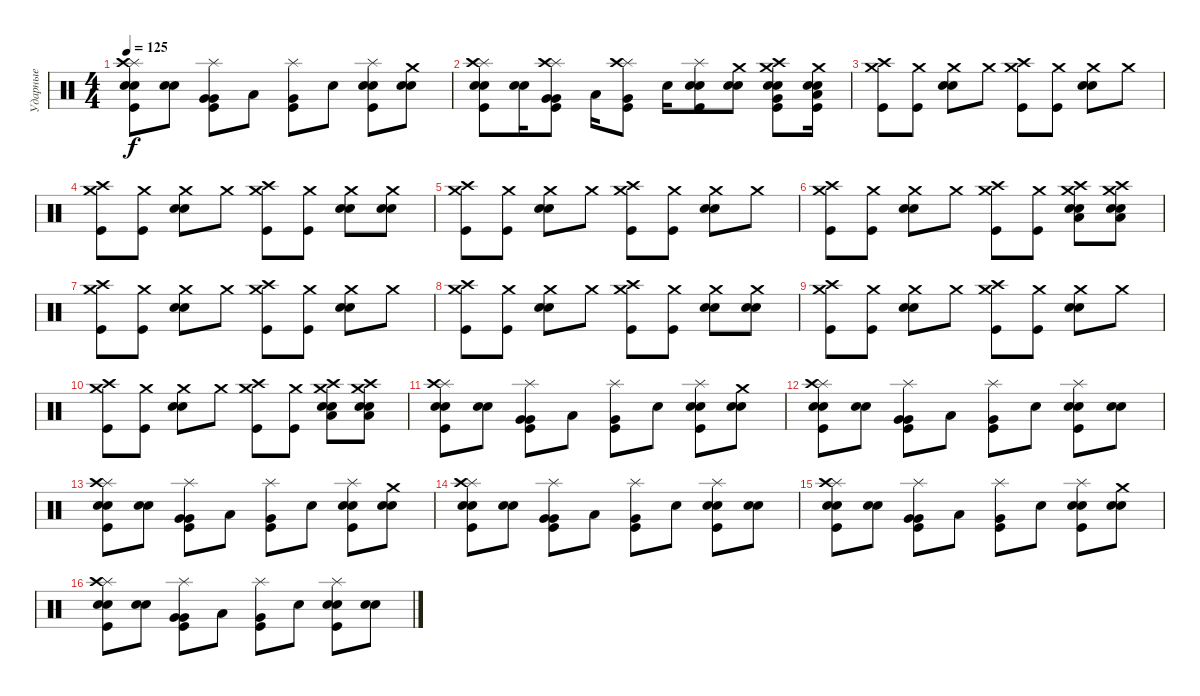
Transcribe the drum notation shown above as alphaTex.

\track ("Ударные" "Ударные") {instrument percussion}
\staff {score}
\articulation defaults
\ts (4 4)
\tempo 125
\clef neutral
\ks c
("Splash (hit)" "Crash high (hit)" "Snare (hit) 2" "Snare (hit) 2" "Kick (hit)").8{dy f} ("Electric Snare (hit)" "Electric Snare (hit)").8 ("Splash (hit)" "Very Low Tom (hit)" "Very Low Tom (hit)" "Kick (hit)").8 "Low Floor Tom (hit)".8 ("Splash (hit)" "Very Low Tom (hit)" "Kick (hit)").8 "Snare (hit) 2".8 ("Splash (hit)" "Electric Snare (hit)" "Electric Snare (hit)" "Kick (hit)").8 ("Crash medium (hit)" "Snare (hit) 2" "Snare (hit) 2").8 |
("Splash (hit)" "Crash high (hit)" "Snare (hit) 2" "Snare (hit) 2" "Kick (hit)").8 ("Electric Snare (hit)" "Electric Snare (hit)").16 ("Splash (hit)" "Crash high (hit)" "Very Low Tom (hit)" "Very Low Tom (hit)" "Kick (hit)").8 "Low Floor Tom (hit)".16 ("Splash (hit)" "Crash high (hit)" "Very Low Tom (hit)" "Kick (hit)").8 "Snare (hit) 2".16 ("Splash (hit)" "Electric Snare (hit)" "Electric Snare (hit)" "Kick (hit)").8 ("Crash medium (hit)" "Snare (hit) 2" "Snare (hit) 2").8 ("Crash medium (hit)" "Crash high (hit)" "Snare (hit) 2" "Electric Snare (hit)" "Very Low Tom (hit)" "Kick (hit)").8 ("Crash medium (hit)" "Electric Snare (hit)" "Electric Snare (hit)" "Low Floor Tom (hit)" "Kick (hit)").16 |
("Crash medium (hit)" "Crash high (hit)" "Kick (hit)").8 ("Crash medium (hit)" "Kick (hit)").8 ("Crash medium (hit)" "Snare (hit) 2" "Snare (hit) 2").8 "Crash medium (hit)".8 ("Crash medium (hit)" "Crash high (hit)" "Kick (hit)").8 ("Crash medium (hit)" "Kick (hit)").8 ("Crash medium (hit)" "Snare (hit) 2" "Snare (hit) 2").8 "Crash medium (hit)".8 |
("Crash medium (hit)" "Crash high (hit)" "Kick (hit)").8 ("Crash medium (hit)" "Kick (hit)").8 ("Crash medium (hit)" "Snare (hit) 2" "Snare (hit) 2").8 "Crash medium (hit)".8 ("Crash medium (hit)" "Crash high (hit)" "Kick (hit)").8 ("Crash medium (hit)" "Kick (hit)").8 ("Crash medium (hit)" "Snare (hit) 2" "Snare (hit) 2").8 ("Crash medium (hit)" "Snare (hit) 2" "Snare (hit) 2").8 |
("Crash medium (hit)" "Crash high (hit)" "Kick (hit)").8 ("Crash medium (hit)" "Kick (hit)").8 ("Crash medium (hit)" "Snare (hit) 2" "Snare (hit) 2").8 "Crash medium (hit)".8 ("Crash medium (hit)" "Crash high (hit)" "Kick (hit)").8 ("Crash medium (hit)" "Kick (hit)").8 ("Crash medium (hit)" "Snare (hit) 2" "Snare (hit) 2").8 "Crash medium (hit)".8 |
("Crash medium (hit)" "Crash high (hit)" "Kick (hit)").8 ("Crash medium (hit)" "Kick (hit)").8 ("Crash medium (hit)" "Snare (hit) 2" "Snare (hit) 2").8 "Crash medium (hit)".8 ("Crash medium (hit)" "Crash high (hit)" "Kick (hit)").8 ("Crash medium (hit)" "Kick (hit)").8 ("Crash medium (hit)" "Crash high (hit)" "Low Floor Tom (hit)" "Snare (hit) 2" "Snare (hit) 2").8 ("Crash medium (hit)" "Crash high (hit)" "Low Floor Tom (hit)" "Snare (hit) 2" "Snare (hit) 2").8 |
("Crash medium (hit)" "Crash high (hit)" "Kick (hit)").8 ("Crash medium (hit)" "Kick (hit)").8 ("Crash medium (hit)" "Snare (hit) 2" "Snare (hit) 2").8 "Crash medium (hit)".8 ("Crash medium (hit)" "Crash high (hit)" "Kick (hit)").8 ("Crash medium (hit)" "Kick (hit)").8 ("Crash medium (hit)" "Snare (hit) 2" "Snare (hit) 2").8 "Crash medium (hit)".8 |
("Crash medium (hit)" "Crash high (hit)" "Kick (hit)").8 ("Crash medium (hit)" "Kick (hit)").8 ("Crash medium (hit)" "Snare (hit) 2" "Snare (hit) 2").8 "Crash medium (hit)".8 ("Crash medium (hit)" "Crash high (hit)" "Kick (hit)").8 ("Crash medium (hit)" "Kick (hit)").8 ("Crash medium (hit)" "Snare (hit) 2" "Snare (hit) 2").8 ("Crash medium (hit)" "Snare (hit) 2" "Snare (hit) 2").8 |
("Crash medium (hit)" "Crash high (hit)" "Kick (hit)").8 ("Crash medium (hit)" "Kick (hit)").8 ("Crash medium (hit)" "Snare (hit) 2" "Snare (hit) 2").8 "Crash medium (hit)".8 ("Crash medium (hit)" "Crash high (hit)" "Kick (hit)").8 ("Crash medium (hit)" "Kick (hit)").8 ("Crash medium (hit)" "Snare (hit) 2" "Snare (hit) 2").8 "Crash medium (hit)".8 |
("Crash medium (hit)" "Crash high (hit)" "Kick (hit)").8 ("Crash medium (hit)" "Kick (hit)").8 ("Crash medium (hit)" "Snare (hit) 2" "Snare (hit) 2").8 "Crash medium (hit)".8 ("Crash medium (hit)" "Crash high (hit)" "Kick (hit)").8 ("Crash medium (hit)" "Kick (hit)").8 ("Crash medium (hit)" "Crash high (hit)" "Low Floor Tom (hit)" "Snare (hit) 2" "Snare (hit) 2").8 ("Crash medium (hit)" "Crash high (hit)" "Low Floor Tom (hit)" "Snare (hit) 2" "Snare (hit) 2").8 |
("Splash (hit)" "Crash high (hit)" "Snare (hit) 2" "Snare (hit) 2" "Kick (hit)").8 ("Electric Snare (hit)" "Electric Snare (hit)").8 ("Splash (hit)" "Very Low Tom (hit)" "Very Low Tom (hit)" "Kick (hit)").8 "Low Floor Tom (hit)".8 ("Splash (hit)" "Very Low Tom (hit)" "Kick (hit)").8 "Snare (hit) 2".8 ("Splash (hit)" "Electric Snare (hit)" "Electric Snare (hit)" "Kick (hit)").8 ("Crash medium (hit)" "Snare (hit) 2" "Snare (hit) 2").8 |
("Splash (hit)" "Crash high (hit)" "Snare (hit) 2" "Snare (hit) 2" "Kick (hit)").8 ("Electric Snare (hit)" "Electric Snare (hit)").8 ("Splash (hit)" "Very Low Tom (hit)" "Very Low Tom (hit)" "Kick (hit)").8 "Low Floor Tom (hit)".8 ("Splash (hit)" "Very Low Tom (hit)" "Kick (hit)").8 "Snare (hit) 2".8 ("Splash (hit)" "Electric Snare (hit)" "Electric Snare (hit)" "Kick (hit)").8 ("Snare (hit) 2" "Snare (hit) 2").8 |
("Splash (hit)" "Crash high (hit)" "Snare (hit) 2" "Snare (hit) 2" "Kick (hit)").8 ("Electric Snare (hit)" "Electric Snare (hit)").8 ("Splash (hit)" "Very Low Tom (hit)" "Very Low Tom (hit)" "Kick (hit)").8 "Low Floor Tom (hit)".8 ("Splash (hit)" "Very Low Tom (hit)" "Kick (hit)").8 "Snare (hit) 2".8 ("Splash (hit)" "Electric Snare (hit)" "Electric Snare (hit)" "Kick (hit)").8 ("Crash medium (hit)" "Snare (hit) 2" "Snare (hit) 2").8 |
("Splash (hit)" "Crash high (hit)" "Snare (hit) 2" "Snare (hit) 2" "Kick (hit)").8 ("Electric Snare (hit)" "Electric Snare (hit)").8 ("Splash (hit)" "Very Low Tom (hit)" "Very Low Tom (hit)" "Kick (hit)").8 "Low Floor Tom (hit)".8 ("Splash (hit)" "Very Low Tom (hit)" "Kick (hit)").8 "Snare (hit) 2".8 ("Splash (hit)" "Electric Snare (hit)" "Electric Snare (hit)" "Kick (hit)").8 ("Snare (hit) 2" "Snare (hit) 2").8 |
("Splash (hit)" "Crash high (hit)" "Snare (hit) 2" "Snare (hit) 2" "Kick (hit)").8 ("Electric Snare (hit)" "Electric Snare (hit)").8 ("Splash (hit)" "Very Low Tom (hit)" "Very Low Tom (hit)" "Kick (hit)").8 "Low Floor Tom (hit)".8 ("Splash (hit)" "Very Low Tom (hit)" "Kick (hit)").8 "Snare (hit) 2".8 ("Splash (hit)" "Electric Snare (hit)" "Electric Snare (hit)" "Kick (hit)").8 ("Crash medium (hit)" "Snare (hit) 2" "Snare (hit) 2").8 |
("Splash (hit)" "Crash high (hit)" "Snare (hit) 2" "Snare (hit) 2" "Kick (hit)").8 ("Electric Snare (hit)" "Electric Snare (hit)").8 ("Splash (hit)" "Very Low Tom (hit)" "Very Low Tom (hit)" "Kick (hit)").8 "Low Floor Tom (hit)".8 ("Splash (hit)" "Very Low Tom (hit)" "Kick (hit)").8 "Snare (hit) 2".8 ("Splash (hit)" "Electric Snare (hit)" "Electric Snare (hit)" "Kick (hit)").8 ("Snare (hit) 2" "Snare (hit) 2").8
